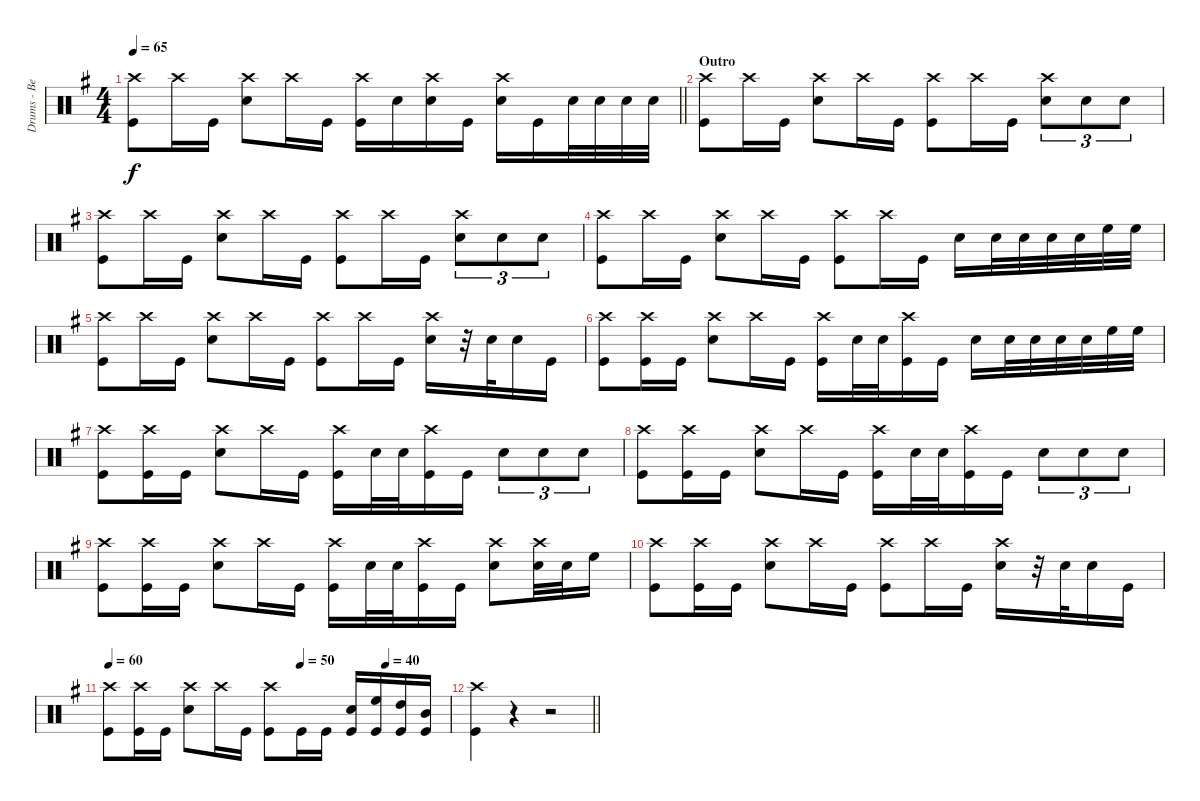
\track ("Drums - Ben Johnston" "Drums - Be") {instrument percussion}
\staff {score}
\articulation defaults
\ts (4 4)
\tempo 65
\clef neutral
\barLineRight lightlight
\ks g
("Crash high (hit)" "Kick (hit)").8{dy f} "Crash high (hit)".16 "Kick (hit)".16 ("Crash high (hit)" "Snare (hit) 2").8 "Crash high (hit)".16 "Kick (hit)".16 ("Crash high (hit)" "Kick (hit)").16 "Snare (hit) 2".16 ("Crash high (hit)" "Snare (hit) 2").16 "Kick (hit)".16 ("Crash high (hit)" "Snare (hit) 2").16 "Kick (hit)".16 "Snare (hit) 2".32 "Snare (hit) 2".32 "Snare (hit) 2".32 "Snare (hit) 2".32 |
\section ("" "Outro")
("Crash high (hit)" "Kick (hit)").8 "Crash high (hit)".16 "Kick (hit)".16 ("Crash high (hit)" "Snare (hit) 2").8 "Crash high (hit)".16 "Kick (hit)".16 ("Crash high (hit)" "Kick (hit)").8 "Crash high (hit)".16 "Kick (hit)".16 ("Crash high (hit)" "Snare (hit) 2").8{tu (3 2)} "Snare (hit) 2".8{tu (3 2)} "Snare (hit) 2".8{tu (3 2)} |
("Crash high (hit)" "Kick (hit)").8 "Crash high (hit)".16 "Kick (hit)".16 ("Crash high (hit)" "Snare (hit) 2").8 "Crash high (hit)".16 "Kick (hit)".16 ("Crash high (hit)" "Kick (hit)").8 "Crash high (hit)".16 "Kick (hit)".16 ("Crash high (hit)" "Snare (hit) 2").8{tu (3 2)} "Snare (hit) 2".8{tu (3 2)} "Snare (hit) 2".8{tu (3 2)} |
("Crash high (hit)" "Kick (hit)").8 "Crash high (hit)".16 "Kick (hit)".16 ("Crash high (hit)" "Snare (hit) 2").8 "Crash high (hit)".16 "Kick (hit)".16 ("Crash high (hit)" "Kick (hit)").8 "Crash high (hit)".16 "Kick (hit)".16 "Snare (hit) 2".16 "Snare (hit) 2".32 "Snare (hit) 2".32 "Snare (hit) 2".32 "Snare (hit) 2".32 "High Floor Tom (hit)".32 "High Floor Tom (hit)".32 |
("Crash high (hit)" "Kick (hit)").8 "Crash high (hit)".16 "Kick (hit)".16 ("Crash high (hit)" "Snare (hit) 2").8 "Crash high (hit)".16 "Kick (hit)".16 ("Crash high (hit)" "Kick (hit)").8 "Crash high (hit)".16 "Kick (hit)".16 ("Crash high (hit)" "Snare (hit) 2").16 r.32 "Snare (hit) 2".32 "Snare (hit) 2".16 "Kick (hit)".16 |
("Crash high (hit)" "Kick (hit)").8 ("Crash high (hit)" "Kick (hit)").16 "Kick (hit)".16 ("Crash high (hit)" "Snare (hit) 2").8 "Crash high (hit)".16 "Kick (hit)".16 ("Crash high (hit)" "Kick (hit)").16 "Snare (hit) 2".32 "Snare (hit) 2".32 ("Crash high (hit)" "Kick (hit)").16 "Kick (hit)".16 "Snare (hit) 2".16 "Snare (hit) 2".32 "Snare (hit) 2".32 "Snare (hit) 2".32 "Snare (hit) 2".32 "High Floor Tom (hit)".32 "High Floor Tom (hit)".32 |
("Crash high (hit)" "Kick (hit)").8 ("Crash high (hit)" "Kick (hit)").16 "Kick (hit)".16 ("Crash high (hit)" "Snare (hit) 2").8 "Crash high (hit)".16 "Kick (hit)".16 ("Crash high (hit)" "Kick (hit)").16 "Snare (hit) 2".32 "Snare (hit) 2".32 ("Crash high (hit)" "Kick (hit)").16 "Kick (hit)".16 "Snare (hit) 2".8{tu (3 2)} "Snare (hit) 2".8{tu (3 2)} "Snare (hit) 2".8{tu (3 2)} |
("Crash high (hit)" "Kick (hit)").8 ("Crash high (hit)" "Kick (hit)").16 "Kick (hit)".16 ("Crash high (hit)" "Snare (hit) 2").8 "Crash high (hit)".16 "Kick (hit)".16 ("Crash high (hit)" "Kick (hit)").16 "Snare (hit) 2".32 "Snare (hit) 2".32 ("Crash high (hit)" "Kick (hit)").16 "Kick (hit)".16 "Snare (hit) 2".8{tu (3 2)} "Snare (hit) 2".8{tu (3 2)} "Snare (hit) 2".8{tu (3 2)} |
("Crash high (hit)" "Kick (hit)").8 ("Crash high (hit)" "Kick (hit)").16 "Kick (hit)".16 ("Crash high (hit)" "Snare (hit) 2").8 "Crash high (hit)".16 "Kick (hit)".16 ("Crash high (hit)" "Kick (hit)").16 "Snare (hit) 2".32 "Snare (hit) 2".32 ("Crash high (hit)" "Kick (hit)").16 "Kick (hit)".16 ("Crash high (hit)" "Snare (hit) 2").8 ("Crash high (hit)" "Snare (hit) 2").32 "Snare (hit) 2".32 "High Floor Tom (hit)".16 |
("Crash high (hit)" "Kick (hit)").8 ("Crash high (hit)" "Kick (hit)").16 "Kick (hit)".16 ("Crash high (hit)" "Snare (hit) 2").8 "Crash high (hit)".16 "Kick (hit)".16 ("Crash high (hit)" "Kick (hit)").8 "Crash high (hit)".16 "Kick (hit)".16 ("Crash high (hit)" "Snare (hit) 2").16 r.32 "Snare (hit) 2".32 "Snare (hit) 2".16 "Kick (hit)".16 |
\tempo (50 0.5625)
\tempo (40 0.8125)
\tempo 60
("Crash high (hit)" "Kick (hit)").8 ("Crash high (hit)" "Kick (hit)").16 "Kick (hit)".16 ("Crash high (hit)" "Snare (hit) 2").8 "Crash high (hit)".16 "Kick (hit)".16 ("Crash high (hit)" "Kick (hit)").8 "Kick (hit)".16 "Kick (hit)".16 ("Snare (hit) 2" "Kick (hit)").16 ("High Floor Tom (hit)" "Kick (hit)").16 ("High Tom (hit)" "Kick (hit)").16 ("Mid Tom (hit)" "Kick (hit)").16 |
\barLineRight lightlight
("Crash high (hit)" "Kick (hit)").4 r.4 r.2
